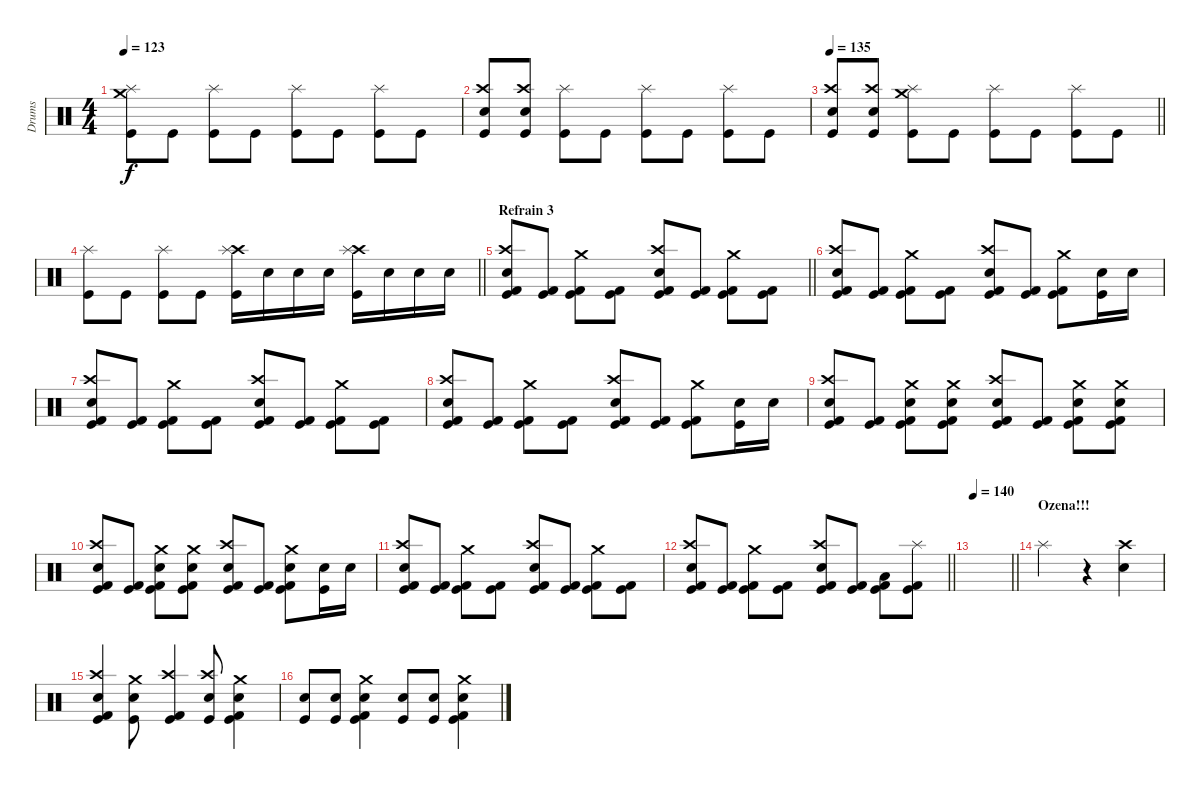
\track ("Drums" "Drums") {instrument percussion}
\staff {score}
\articulation defaults
\ts (4 4)
\tempo 123
\clef neutral
\ks c
("Crash medium (hit)" "Splash (hit)" "Kick (hit)").8{dy f} "Kick (hit)".8 ("Splash (hit)" "Kick (hit)").8 "Kick (hit)".8 ("Splash (hit)" "Kick (hit)").8 "Kick (hit)".8 ("Splash (hit)" "Kick (hit)").8 "Kick (hit)".8 |
("Crash high (hit)" "Snare (hit) 2" "Kick (hit)").8 ("Crash high (hit)" "Snare (hit) 2" "Kick (hit)").8 ("Splash (hit)" "Kick (hit)").8 "Kick (hit)".8 ("Splash (hit)" "Kick (hit)").8 "Kick (hit)".8 ("Splash (hit)" "Kick (hit)").8 "Kick (hit)".8 |
\tempo 135
\barLineRight lightlight
("Crash high (hit)" "Snare (hit) 2" "Kick (hit)").8{volume 14} ("Crash high (hit)" "Snare (hit) 2" "Kick (hit)").8 ("Crash medium (hit)" "Splash (hit)" "Kick (hit)").8 "Kick (hit)".8 ("Splash (hit)" "Kick (hit)").8 "Kick (hit)".8 ("Splash (hit)" "Kick (hit)").8 "Kick (hit)".8 |
\barLineRight lightlight
("Splash (hit)" "Kick (hit)").8 "Kick (hit)".8 ("Splash (hit)" "Kick (hit)").8 "Kick (hit)".8 ("Crash high (hit)" "Splash (hit)" "Kick (hit)").16 "Snare (hit) 2".16 "Snare (hit) 2".16 "Snare (hit) 2".16 ("Crash high (hit)" "Splash (hit)" "Kick (hit)").16 "Snare (hit) 2".16 "Snare (hit) 2".16 "Snare (hit) 2".16 |
\section ("" "Refrain 3")
\barLineRight lightlight
("Crash high (hit)" "Snare (hit) 2" "Kick (hit) 2" "Kick (hit)").8{volume 12} ("Kick (hit) 2" "Kick (hit)").8 ("Crash medium (hit)" "Kick (hit) 2" "Kick (hit)").8 ("Kick (hit) 2" "Kick (hit)").8 ("Crash high (hit)" "Snare (hit) 2" "Kick (hit) 2" "Kick (hit)").8 ("Kick (hit) 2" "Kick (hit)").8 ("Crash medium (hit)" "Kick (hit) 2" "Kick (hit)").8 ("Kick (hit) 2" "Kick (hit)").8 |
("Crash high (hit)" "Snare (hit) 2" "Kick (hit) 2" "Kick (hit)").8 ("Kick (hit) 2" "Kick (hit)").8 ("Crash medium (hit)" "Kick (hit) 2" "Kick (hit)").8 ("Kick (hit) 2" "Kick (hit)").8 ("Crash high (hit)" "Snare (hit) 2" "Kick (hit) 2" "Kick (hit)").8 ("Kick (hit) 2" "Kick (hit)").8 ("Crash medium (hit)" "Kick (hit) 2" "Kick (hit)").8 ("Snare (hit) 2" "Kick (hit)").16 "Snare (hit) 2".16 |
("Crash high (hit)" "Snare (hit) 2" "Kick (hit) 2" "Kick (hit)").8 ("Kick (hit) 2" "Kick (hit)").8 ("Crash medium (hit)" "Kick (hit) 2" "Kick (hit)").8 ("Kick (hit) 2" "Kick (hit)").8 ("Crash high (hit)" "Snare (hit) 2" "Kick (hit) 2" "Kick (hit)").8 ("Kick (hit) 2" "Kick (hit)").8 ("Crash medium (hit)" "Kick (hit) 2" "Kick (hit)").8 ("Kick (hit) 2" "Kick (hit)").8 |
("Crash high (hit)" "Snare (hit) 2" "Kick (hit) 2" "Kick (hit)").8 ("Kick (hit) 2" "Kick (hit)").8 ("Crash medium (hit)" "Kick (hit) 2" "Kick (hit)").8 ("Kick (hit) 2" "Kick (hit)").8 ("Crash high (hit)" "Snare (hit) 2" "Kick (hit) 2" "Kick (hit)").8 ("Kick (hit) 2" "Kick (hit)").8 ("Crash medium (hit)" "Kick (hit) 2" "Kick (hit)").8 ("Snare (hit) 2" "Kick (hit)").16 "Snare (hit) 2".16 |
("Crash high (hit)" "Snare (hit) 2" "Kick (hit) 2" "Kick (hit)").8 ("Kick (hit) 2" "Kick (hit)").8 ("Crash medium (hit)" "Electric Snare (hit)" "Kick (hit) 2" "Kick (hit)").8 ("Crash medium (hit)" "Electric Snare (hit)" "Kick (hit) 2" "Kick (hit)").8 ("Crash high (hit)" "Snare (hit) 2" "Kick (hit) 2" "Kick (hit)").8 ("Kick (hit) 2" "Kick (hit)").8 ("Crash medium (hit)" "Electric Snare (hit)" "Kick (hit) 2" "Kick (hit)").8 ("Crash medium (hit)" "Electric Snare (hit)" "Kick (hit) 2" "Kick (hit)").8 |
("Crash high (hit)" "Snare (hit) 2" "Kick (hit) 2" "Kick (hit)").8 ("Kick (hit) 2" "Kick (hit)").8 ("Crash medium (hit)" "Electric Snare (hit)" "Kick (hit) 2" "Kick (hit)").8 ("Crash medium (hit)" "Electric Snare (hit)" "Kick (hit) 2" "Kick (hit)").8 ("Crash high (hit)" "Snare (hit) 2" "Kick (hit) 2" "Kick (hit)").8 ("Kick (hit) 2" "Kick (hit)").8 ("Crash medium (hit)" "Electric Snare (hit)" "Kick (hit) 2" "Kick (hit)").8 ("Snare (hit) 2" "Kick (hit)").16 "Snare (hit) 2".16 |
("Crash high (hit)" "Snare (hit) 2" "Kick (hit) 2" "Kick (hit)").8 ("Kick (hit) 2" "Kick (hit)").8 ("Crash medium (hit)" "Kick (hit) 2" "Kick (hit)").8 ("Kick (hit) 2" "Kick (hit)").8 ("Crash high (hit)" "Snare (hit) 2" "Kick (hit) 2" "Kick (hit)").8 ("Kick (hit) 2" "Kick (hit)").8 ("Crash medium (hit)" "Kick (hit) 2" "Kick (hit)").8 ("Kick (hit) 2" "Kick (hit)").8 |
\barLineRight lightlight
("Crash high (hit)" "Snare (hit) 2" "Kick (hit) 2" "Kick (hit)").8 ("Kick (hit) 2" "Kick (hit)").8 ("Crash medium (hit)" "Kick (hit) 2" "Kick (hit)").8 ("Kick (hit) 2" "Kick (hit)").8 ("Crash high (hit)" "Snare (hit) 2" "Kick (hit) 2" "Kick (hit)").8 ("Kick (hit) 2" "Kick (hit)").8 ("Low Floor Tom (hit)" "Kick (hit) 2" "Kick (hit)").8 ("Splash (hit)" "Kick (hit) 2" "Kick (hit)").8 |
\tempo 140
\barLineRight lightlight
|
\section ("" "Ozena!!!")
"Splash (hit)".2 r.4 ("Crash high (hit)" "Snare (hit) 2").4 |
("Crash high (hit)" "Snare (hit) 2" "Kick (hit) 2" "Kick (hit)").4 ("Crash medium (hit)" "Snare (hit) 2" "Kick (hit)").8 ("Crash high (hit)" "Kick (hit) 2" "Kick (hit)").4 ("Crash high (hit)" "Snare (hit) 2" "Kick (hit)").8 ("Crash medium (hit)" "Electric Snare (hit)" "Kick (hit) 2" "Kick (hit)").4 |
("Snare (hit) 2" "Kick (hit)").8 ("Snare (hit) 2" "Kick (hit)").8 ("Crash medium (hit)" "Electric Snare (hit)" "Kick (hit) 2" "Kick (hit)").4 ("Snare (hit) 2" "Kick (hit)").8 ("Snare (hit) 2" "Kick (hit)").8 ("Crash medium (hit)" "Electric Snare (hit)" "Kick (hit) 2" "Kick (hit)").4
